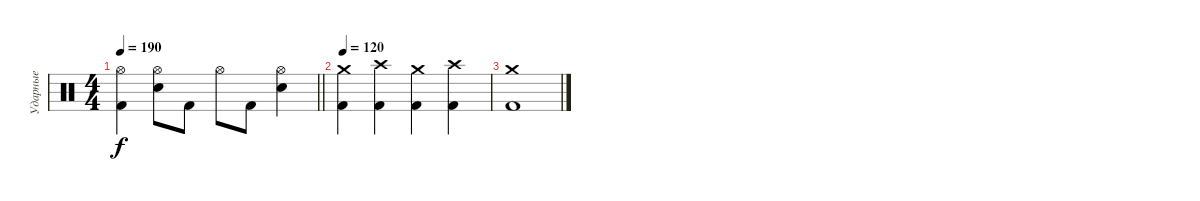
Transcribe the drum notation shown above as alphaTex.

\track ("Ударные" "Ударные") {instrument percussion}
\staff {score}
\articulation defaults
\ts (4 4)
\tempo 190
\clef neutral
\barLineRight lightlight
\ks c
("Kick (hit) 2" "Hi-Hat (open)").4{dy f} ("Electric Snare (hit)" "Hi-Hat (open)").8 "Kick (hit) 2".8 "Hi-Hat (open)".8 "Kick (hit) 2".8 ("Electric Snare (hit)" "Hi-Hat (open)").4 |
\section ("" "")
\tempo 120
("Crash medium (hit)" "Kick (hit) 2").4 ("Crash high (hit)" "Kick (hit) 2").4 ("Crash medium (hit)" "Kick (hit) 2").4 ("Crash high (hit)" "Kick (hit) 2").4 |
("Crash medium (hit)" "Kick (hit) 2").1
